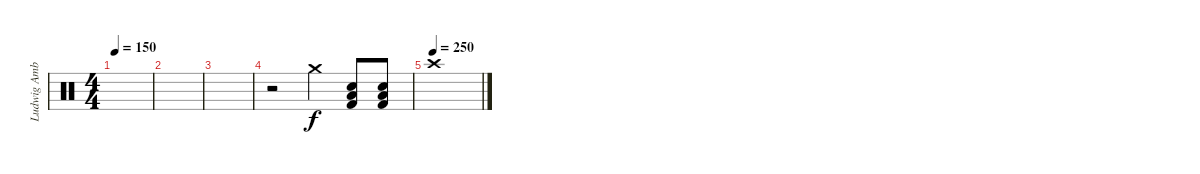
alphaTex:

\track ("Ludwig Amber Vistalite / 2x Bass Pedal" "Ludwig Amb") {instrument percussion}
\staff {score}
\articulation defaults
\ts (4 4)
\tempo 150
\clef neutral
\ks c
|
|
|
r.2 "Crash medium (hit)".4 ("Low Tom (hit)" "Electric Snare (hit)" "Kick (hit) 2").8 ("Low Tom (hit)" "Electric Snare (hit)" "Kick (hit) 2").8 |
\tempo (250)
"Crash high (hit)".1
